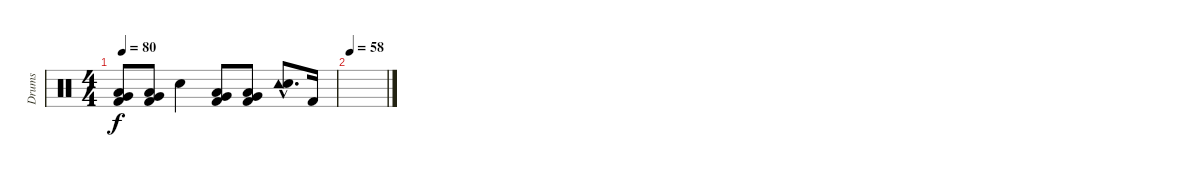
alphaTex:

\track ("Drums" "Drums") {instrument percussion}
\staff {score}
\articulation defaults
\ts (4 4)
\tempo 80
\clef neutral
\ks c
("Very Low Tom (hit)" "Kick (hit) 2" "Low Floor Tom (hit)").8{dy f} ("Very Low Tom (hit)" "Kick (hit) 2" "Low Floor Tom (hit)").8 "Electric Snare (hit)".4 ("Very Low Tom (hit)" "Kick (hit) 2" "Low Floor Tom (hit)").8 ("Very Low Tom (hit)" "Kick (hit) 2" "Low Floor Tom (hit)").8 ("Tambourine (hit)"{hac} "Electric Snare (hit)"{hac}).8{d} "Kick (hit) 2".16 |
\tempo 58
